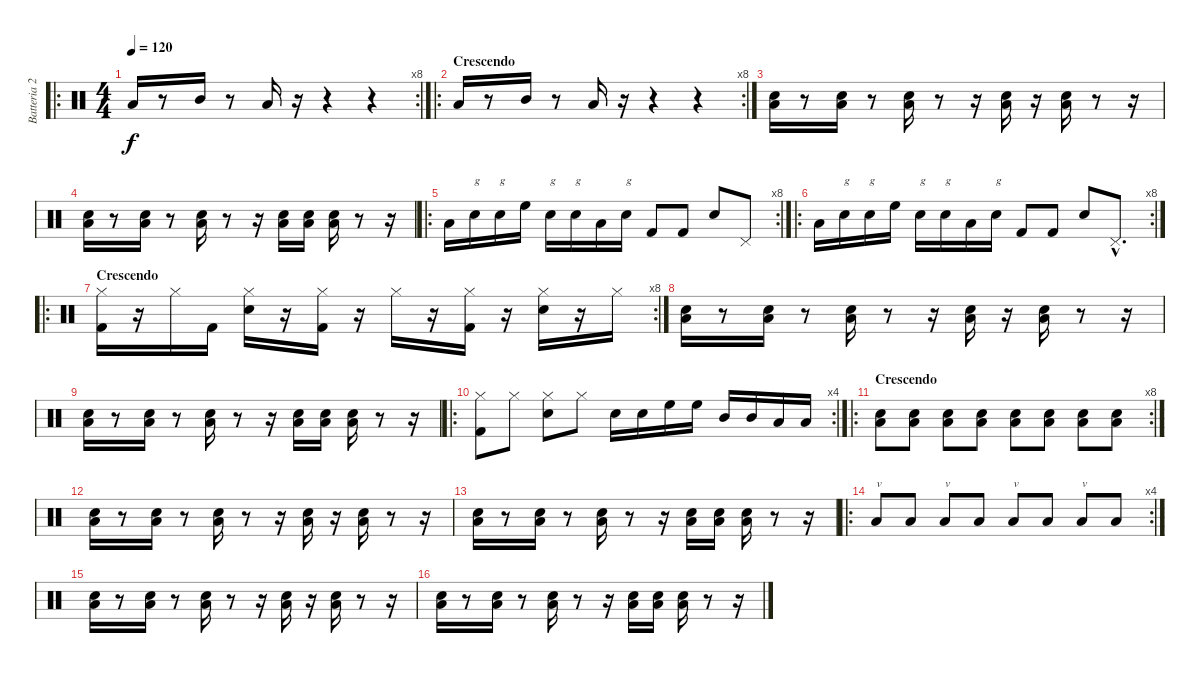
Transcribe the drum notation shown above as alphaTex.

\track ("Batteria 2" "Batteria 2") {instrument percussion}
\staff {score}
\articulation defaults
\ro
\rc 8
\ts (4 4)
\tempo 120
\clef neutral
\ks c "Low Floor Tom (hit)".16{dy f}
r.8 "Mid Tom (hit)".16 r.8 "Low Floor Tom (hit)".16 r.16 r.4 r.4 |
\ro
\rc 8
\section ("" "Crescendo")
"Low Floor Tom (hit)".16{volume 16} r.8 "Mid Tom (hit)".16{volume 16} r.8 "Low Floor Tom (hit)".16{volume 16} r.16 r.4 r.4 |
("Low Floor Tom (hit)" "Snare (hit) 2").16{volume 13} r.8 ("Low Floor Tom (hit)" "Snare (hit) 2").16 r.8 ("Low Floor Tom (hit)" "Snare (hit) 2").16 r.8 r.16 ("Low Floor Tom (hit)" "Snare (hit) 2").16 r.16 ("Low Floor Tom (hit)" "Snare (hit) 2").16 r.8 r.16 |
("Low Floor Tom (hit)" "Snare (hit) 2").16 r.8 ("Low Floor Tom (hit)" "Snare (hit) 2").16 r.8 ("Low Floor Tom (hit)" "Snare (hit) 2").16 r.8 r.16 ("Low Floor Tom (hit)" "Snare (hit) 2").16 ("Low Floor Tom (hit)" "Snare (hit) 2").16 ("Low Floor Tom (hit)" "Snare (hit) 2").16 r.8 r.16 |
\ro
\rc 8 "Low Floor Tom (hit)".16 "Snare (hit) 2".16{txt "g"} "Snare (hit) 2".16{txt "g"} "High Floor Tom (hit)".16 "Snare (hit) 2".16{txt "g"} "Snare (hit) 2".16{txt "g"} "Low Floor Tom (hit)".16 "Snare (hit) 2".16{txt "g"} "Kick (hit) 2".8 "Kick (hit) 2".8 "Snare (hit) 2".8 "Pedal Hi-Hat (hit)".8
|
\ro
\rc 8 "Low Floor Tom (hit)".16{volume 6} "Snare (hit) 2".16{txt "g"} "Snare (hit) 2".16{txt "g"} "High Floor Tom (hit)".16 "Snare (hit) 2".16{txt "g"} "Snare (hit) 2".16{txt "g"} "Low Floor Tom (hit)".16 "Snare (hit) 2".16{txt "g"} "Kick (hit) 2".8 "Kick (hit) 2".8 "Snare (hit) 2".8 "Pedal Hi-Hat (hit)"{hac}.8{d}
|
\ro
\rc 8
\section ("" "Crescendo")
("Hi-Hat (closed)" "Kick (hit) 2").16 r.16 "Hi-Hat (closed)".16 "Kick (hit) 2".16 ("Hi-Hat (closed)" "Snare (hit) 2").16 r.16 ("Hi-Hat (closed)" "Kick (hit) 2").16 r.16 "Hi-Hat (closed)".16 r.16 ("Hi-Hat (closed)" "Kick (hit) 2").16 r.16 ("Hi-Hat (closed)" "Snare (hit) 2").16 r.16 "Hi-Hat (closed)".16 |
("Low Floor Tom (hit)" "Snare (hit) 2").16{volume 13} r.8 ("Low Floor Tom (hit)" "Snare (hit) 2").16 r.8 ("Low Floor Tom (hit)" "Snare (hit) 2").16 r.8 r.16 ("Low Floor Tom (hit)" "Snare (hit) 2").16 r.16 ("Low Floor Tom (hit)" "Snare (hit) 2").16 r.8 r.16 |
("Low Floor Tom (hit)" "Snare (hit) 2").16 r.8 ("Low Floor Tom (hit)" "Snare (hit) 2").16 r.8 ("Low Floor Tom (hit)" "Snare (hit) 2").16 r.8 r.16 ("Low Floor Tom (hit)" "Snare (hit) 2").16 ("Low Floor Tom (hit)" "Snare (hit) 2").16 ("Low Floor Tom (hit)" "Snare (hit) 2").16 r.8 r.16 |
\ro
\rc 4
("Hi-Hat (closed)" "Kick (hit) 2").8 "Hi-Hat (closed)".8 ("Hi-Hat (closed)" "Snare (hit) 2").8 "Hi-Hat (closed)".8 "Snare (hit) 2".16 "Snare (hit) 2".16 "High Floor Tom (hit)".16 "High Floor Tom (hit)".16 "Mid Tom (hit)".16 "Mid Tom (hit)".16 "Low Floor Tom (hit)".16 "Low Floor Tom (hit)".16 |
\ro
\rc 8
\section ("" "Crescendo")
("Snare (hit) 2" "Low Floor Tom (hit)").8 ("Snare (hit) 2" "Low Floor Tom (hit)").8 ("Snare (hit) 2" "Low Floor Tom (hit)").8 ("Snare (hit) 2" "Low Floor Tom (hit)").8 ("Snare (hit) 2" "Low Floor Tom (hit)").8 ("Snare (hit) 2" "Low Floor Tom (hit)").8 ("Snare (hit) 2" "Low Floor Tom (hit)").8 ("Snare (hit) 2" "Low Floor Tom (hit)").8 |
("Low Floor Tom (hit)" "Snare (hit) 2").16{volume 13} r.8 ("Low Floor Tom (hit)" "Snare (hit) 2").16 r.8 ("Low Floor Tom (hit)" "Snare (hit) 2").16 r.8 r.16 ("Low Floor Tom (hit)" "Snare (hit) 2").16 r.16 ("Low Floor Tom (hit)" "Snare (hit) 2").16 r.8 r.16 |
("Low Floor Tom (hit)" "Snare (hit) 2").16 r.8 ("Low Floor Tom (hit)" "Snare (hit) 2").16 r.8 ("Low Floor Tom (hit)" "Snare (hit) 2").16 r.8 r.16 ("Low Floor Tom (hit)" "Snare (hit) 2").16 ("Low Floor Tom (hit)" "Snare (hit) 2").16 ("Low Floor Tom (hit)" "Snare (hit) 2").16 r.8 r.16 |
\ro
\rc 4 "Low Floor Tom (hit)".8{txt "v"} "Low Floor Tom (hit)".8 "Low Floor Tom (hit)".8{txt "v"} "Low Floor Tom (hit)".8 "Low Floor Tom (hit)".8{txt "v"} "Low Floor Tom (hit)".8 "Low Floor Tom (hit)".8{txt "v"} "Low Floor Tom (hit)".8
|
("Low Floor Tom (hit)" "Snare (hit) 2").16{volume 13} r.8 ("Low Floor Tom (hit)" "Snare (hit) 2").16 r.8 ("Low Floor Tom (hit)" "Snare (hit) 2").16 r.8 r.16 ("Low Floor Tom (hit)" "Snare (hit) 2").16 r.16 ("Low Floor Tom (hit)" "Snare (hit) 2").16 r.8 r.16 |
("Low Floor Tom (hit)" "Snare (hit) 2").16 r.8 ("Low Floor Tom (hit)" "Snare (hit) 2").16 r.8 ("Low Floor Tom (hit)" "Snare (hit) 2").16 r.8 r.16 ("Low Floor Tom (hit)" "Snare (hit) 2").16 ("Low Floor Tom (hit)" "Snare (hit) 2").16 ("Low Floor Tom (hit)" "Snare (hit) 2").16 r.8 r.16
